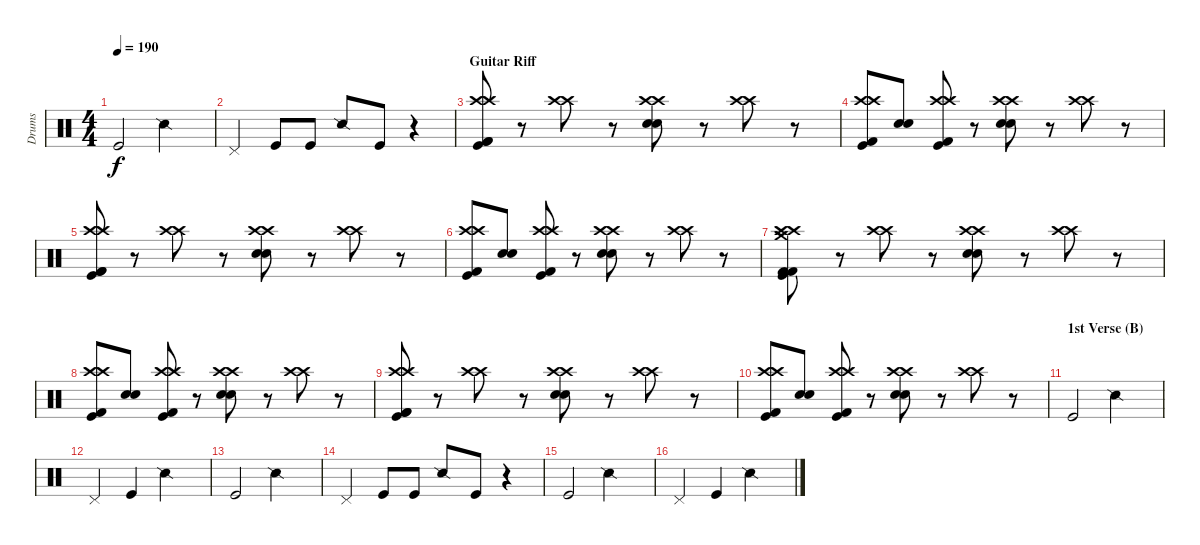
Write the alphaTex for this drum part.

\track ("Drums" "Drums") {instrument percussion}
\staff {score}
\articulation defaults
\ts (4 4)
\tempo 190
\clef neutral
\ks c "Kick (hit)".2{dy f} "Snare (side stick) 2".2
|
"Pedal Hi-Hat (hit)".4 "Kick (hit)".8 "Kick (hit)".8 "Snare (side stick) 2".8 "Kick (hit)".8 r.4 |
\section ("" "Guitar Riff")
("Crash high (hit)" "Crash high (hit)" "Kick (hit) 2" "Kick (hit) 2" "Kick (hit)").8 r.8 ("Crash high (hit)" "Crash high (hit)").8 r.8 ("Crash high (hit)" "Crash high (hit)" "Electric Snare (hit)" "Electric Snare (hit)").8 r.8 ("Crash high (hit)" "Crash high (hit)").8 r.8 |
("Crash high (hit)" "Crash high (hit)" "Kick (hit) 2" "Kick (hit)").8 ("Electric Snare (hit)" "Electric Snare (hit)").8 ("Crash high (hit)" "Crash high (hit)" "Kick (hit) 2" "Kick (hit)").8 r.8 ("Crash high (hit)" "Crash high (hit)" "Electric Snare (hit)" "Electric Snare (hit)").8 r.8 ("Crash high (hit)" "Crash high (hit)").8 r.8 |
("Crash high (hit)" "Crash high (hit)" "Kick (hit) 2" "Kick (hit) 2" "Kick (hit)").8 r.8 ("Crash high (hit)" "Crash high (hit)").8 r.8 ("Crash high (hit)" "Crash high (hit)" "Electric Snare (hit)" "Electric Snare (hit)").8 r.8 ("Crash high (hit)" "Crash high (hit)").8 r.8 |
("Crash high (hit)" "Crash high (hit)" "Kick (hit) 2" "Kick (hit)").8 ("Electric Snare (hit)" "Electric Snare (hit)").8 ("Crash high (hit)" "Crash high (hit)" "Kick (hit) 2" "Kick (hit)").8 r.8 ("Crash high (hit)" "Crash high (hit)" "Electric Snare (hit)" "Electric Snare (hit)").8 r.8 ("Crash high (hit)" "Crash high (hit)").8 r.8 |
("Crash high (hit)" "Crash high (hit)" "Crash medium (hit)" "Kick (hit) 2" "Kick (hit) 2" "Kick (hit)").8 r.8 ("Crash high (hit)" "Crash high (hit)").8 r.8 ("Crash high (hit)" "Crash high (hit)" "Electric Snare (hit)" "Electric Snare (hit)").8 r.8 ("Crash high (hit)" "Crash high (hit)").8 r.8 |
("Crash high (hit)" "Crash high (hit)" "Kick (hit) 2" "Kick (hit)").8 ("Electric Snare (hit)" "Electric Snare (hit)").8 ("Crash high (hit)" "Crash high (hit)" "Kick (hit) 2" "Kick (hit)").8 r.8 ("Crash high (hit)" "Crash high (hit)" "Electric Snare (hit)" "Electric Snare (hit)").8 r.8 ("Crash high (hit)" "Crash high (hit)").8 r.8 |
("Crash high (hit)" "Crash high (hit)" "Kick (hit) 2" "Kick (hit) 2" "Kick (hit)").8 r.8 ("Crash high (hit)" "Crash high (hit)").8 r.8 ("Crash high (hit)" "Crash high (hit)" "Electric Snare (hit)" "Electric Snare (hit)").8 r.8 ("Crash high (hit)" "Crash high (hit)").8 r.8 |
("Crash high (hit)" "Crash high (hit)" "Kick (hit) 2" "Kick (hit)").8 ("Electric Snare (hit)" "Electric Snare (hit)").8 ("Crash high (hit)" "Crash high (hit)" "Kick (hit) 2" "Kick (hit)").8 r.8 ("Crash high (hit)" "Crash high (hit)" "Electric Snare (hit)" "Electric Snare (hit)").8 r.8 ("Crash high (hit)" "Crash high (hit)").8 r.8 |
\section ("" "1st Verse (B)")
"Kick (hit)".2 "Snare (side stick) 2".2 |
"Pedal Hi-Hat (hit)".4 "Kick (hit)".4 "Snare (side stick) 2".2 |
"Kick (hit)".2 "Snare (side stick) 2".2 |
"Pedal Hi-Hat (hit)".4 "Kick (hit)".8 "Kick (hit)".8 "Snare (side stick) 2".8 "Kick (hit)".8 r.4 |
"Kick (hit)".2 "Snare (side stick) 2".2 |
"Pedal Hi-Hat (hit)".4 "Kick (hit)".4 "Snare (side stick) 2".2
